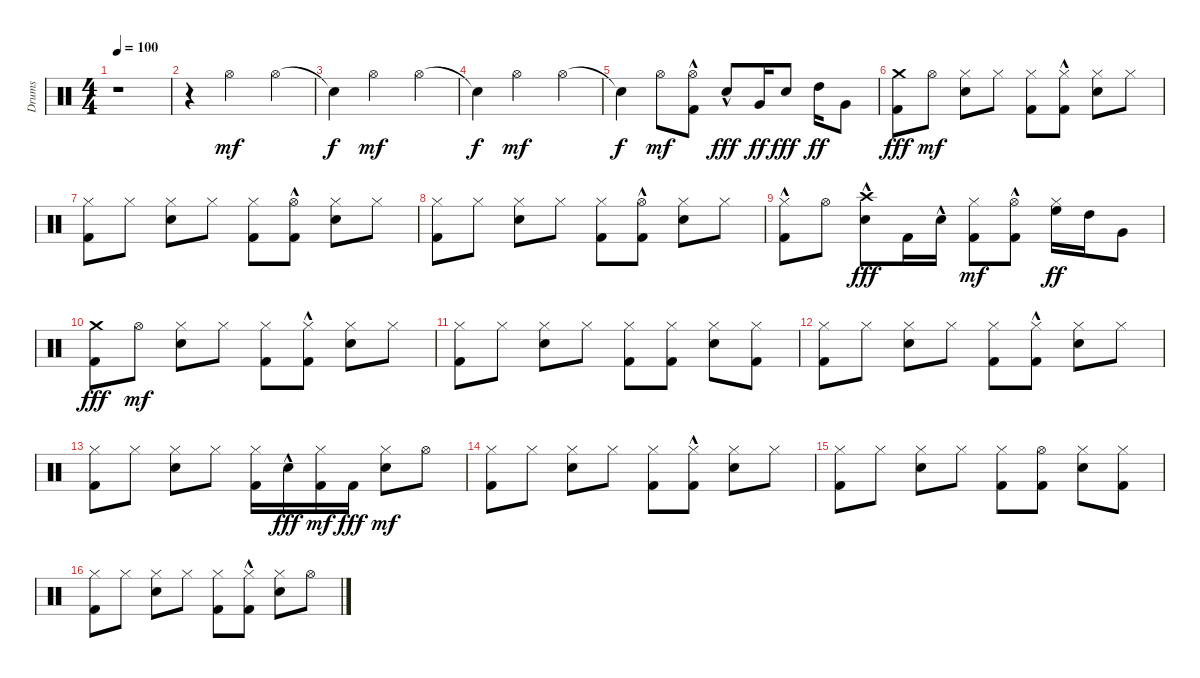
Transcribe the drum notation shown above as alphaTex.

\track ("Drums" "Drums") {instrument percussion}
\staff {score}
\articulation defaults
\ts (4 4)
\tempo 100
\clef neutral
\ks c
r.1{dy mf} |
r.4 "Hi-Hat (open)".2 "Hi-Hat (open)".4 |
"Snare (hit)"{t}.4{dy f} "Hi-Hat (open)".2{dy mf} "Hi-Hat (open)".4 |
"Snare (hit)"{t}.4{dy f} "Hi-Hat (open)".2{dy mf} "Hi-Hat (open)".4 |
"Snare (hit)"{t}.4{dy f} "Hi-Hat (open)".8{dy mf} ("Kick (hit) 2" "Hi-Hat (open)"{hac}).8 "Snare (hit) 2"{hac}.8{dy fff} "Very Low Tom (hit)".16{dy ff} "Snare (hit) 2".8{dy fff} "High Tom (hit)".16{dy ff} "Very Low Tom (hit)".8 |
("Crash medium (hit)" "Kick (hit) 2").8{dy fff} "Hi-Hat (open)".8{dy mf} ("Snare (hit) 2" "Hi-Hat (closed)").8 "Hi-Hat (closed)".8 ("Kick (hit) 2" "Hi-Hat (closed)").8 ("Kick (hit) 2"{hac} "Hi-Hat (closed)").8 ("Snare (hit) 2" "Hi-Hat (closed)").8 "Hi-Hat (closed)".8 |
("Kick (hit) 2" "Hi-Hat (closed)").8 "Hi-Hat (closed)".8 ("Snare (hit) 2" "Hi-Hat (closed)").8 "Hi-Hat (closed)".8 ("Kick (hit) 2" "Hi-Hat (closed)").8 ("Kick (hit) 2"{hac} "Hi-Hat (open)").8 ("Snare (hit) 2" "Hi-Hat (closed)").8 "Hi-Hat (closed)".8 |
("Kick (hit) 2" "Hi-Hat (closed)").8 "Hi-Hat (closed)".8 ("Snare (hit) 2" "Hi-Hat (closed)").8 "Hi-Hat (closed)".8 ("Kick (hit) 2" "Hi-Hat (closed)").8 ("Kick (hit) 2"{hac} "Hi-Hat (open)").8 ("Snare (hit) 2" "Hi-Hat (closed)").8 "Hi-Hat (closed)".8 |
("Kick (hit) 2"{hac} "Hi-Hat (closed)").8 "Hi-Hat (open)".8 ("Crash high (hit)" "Snare (hit) 2"{hac}).8{dy fff} "Kick (hit) 2".16 "Snare (hit) 2"{hac}.16 ("Kick (hit) 2" "Hi-Hat (closed)").8{dy mf} ("Kick (hit) 2"{hac} "Hi-Hat (open)").8 ("Hi-Hat (closed)" "High Floor Tom (hit)").16{dy ff} "High Tom (hit)".16 "Very Low Tom (hit)".8 |
("Crash medium (hit)" "Kick (hit) 2").8{dy fff} "Hi-Hat (open)".8{dy mf} ("Snare (hit) 2" "Hi-Hat (closed)").8 "Hi-Hat (closed)".8 ("Kick (hit) 2" "Hi-Hat (closed)").8 ("Kick (hit) 2"{hac} "Hi-Hat (closed)").8 ("Snare (hit) 2" "Hi-Hat (closed)").8 "Hi-Hat (closed)".8 |
("Kick (hit) 2" "Hi-Hat (closed)").8 "Hi-Hat (closed)".8 ("Snare (hit) 2" "Hi-Hat (closed)").8 "Hi-Hat (closed)".8 ("Kick (hit) 2" "Hi-Hat (closed)").8 ("Kick (hit) 2" "Hi-Hat (closed)").8 ("Snare (hit) 2" "Hi-Hat (closed)").8 ("Kick (hit) 2" "Hi-Hat (closed)").8 |
("Kick (hit) 2" "Hi-Hat (closed)").8 "Hi-Hat (closed)".8 ("Snare (hit) 2" "Hi-Hat (closed)").8 "Hi-Hat (closed)".8 ("Kick (hit) 2" "Hi-Hat (closed)").8 ("Kick (hit) 2"{hac} "Hi-Hat (closed)").8 ("Snare (hit) 2" "Hi-Hat (closed)").8 "Hi-Hat (closed)".8 |
("Kick (hit) 2" "Hi-Hat (closed)").8 "Hi-Hat (closed)".8 ("Snare (hit) 2" "Hi-Hat (closed)").8 "Hi-Hat (closed)".8 ("Kick (hit) 2" "Hi-Hat (closed)").16 "Snare (hit) 2"{hac}.16{dy fff} ("Kick (hit) 2" "Hi-Hat (closed)").16{dy mf} "Kick (hit) 2".16{dy fff} ("Snare (hit) 2" "Hi-Hat (closed)").8{dy mf} "Hi-Hat (open)".8 |
("Kick (hit) 2" "Hi-Hat (closed)").8 "Hi-Hat (closed)".8 ("Snare (hit) 2" "Hi-Hat (closed)").8 "Hi-Hat (closed)".8 ("Kick (hit) 2" "Hi-Hat (closed)").8 ("Kick (hit) 2"{hac} "Hi-Hat (closed)").8 ("Snare (hit) 2" "Hi-Hat (closed)").8 "Hi-Hat (closed)".8 |
("Kick (hit) 2" "Hi-Hat (closed)").8 "Hi-Hat (closed)".8 ("Snare (hit) 2" "Hi-Hat (closed)").8 "Hi-Hat (closed)".8 ("Kick (hit) 2" "Hi-Hat (closed)").8 ("Kick (hit) 2" "Hi-Hat (open)").8 ("Snare (hit) 2" "Hi-Hat (closed)").8 ("Kick (hit) 2" "Hi-Hat (closed)").8 |
("Kick (hit) 2" "Hi-Hat (closed)").8 "Hi-Hat (closed)".8 ("Snare (hit) 2" "Hi-Hat (closed)").8 "Hi-Hat (closed)".8 ("Kick (hit) 2" "Hi-Hat (closed)").8 ("Kick (hit) 2"{hac} "Hi-Hat (closed)").8 ("Snare (hit) 2" "Hi-Hat (closed)").8 "Hi-Hat (open)".8
